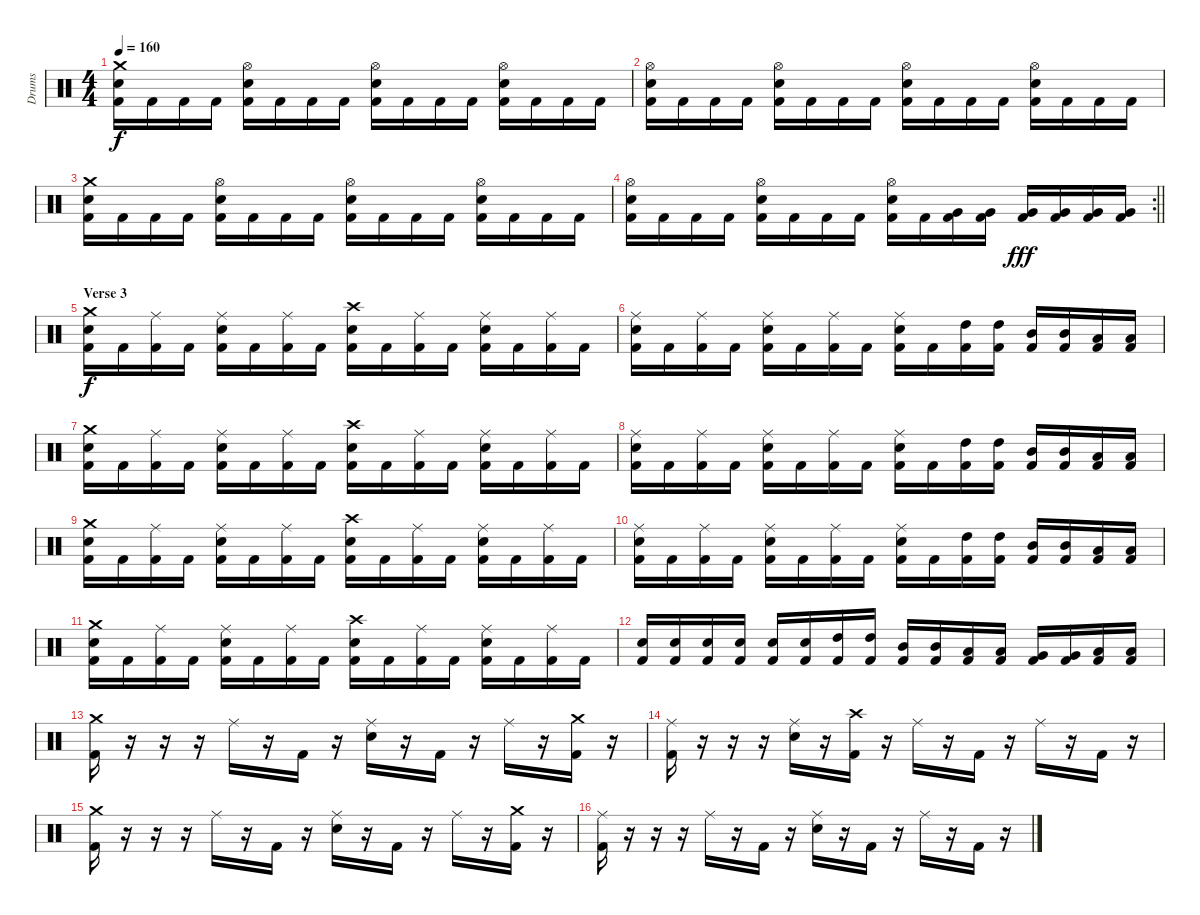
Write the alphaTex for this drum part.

\track ("Drums" "Drums") {instrument percussion}
\staff {score}
\articulation defaults
\ts (4 4)
\tempo 160
\clef neutral
\ks c
("Crash medium (hit)" "Electric Snare (hit)" "Kick (hit) 2").16{dy f} "Kick (hit) 2".16 "Kick (hit) 2".16 "Kick (hit) 2".16 ("Hi-Hat (open)" "Electric Snare (hit)" "Kick (hit) 2").16 "Kick (hit) 2".16 "Kick (hit) 2".16 "Kick (hit) 2".16 ("Hi-Hat (open)" "Electric Snare (hit)" "Kick (hit) 2").16 "Kick (hit) 2".16 "Kick (hit) 2".16 "Kick (hit) 2".16 ("Hi-Hat (open)" "Electric Snare (hit)" "Kick (hit) 2").16 "Kick (hit) 2".16 "Kick (hit) 2".16 "Kick (hit) 2".16 |
("Hi-Hat (open)" "Electric Snare (hit)" "Kick (hit) 2").16 "Kick (hit) 2".16 "Kick (hit) 2".16 "Kick (hit) 2".16 ("Hi-Hat (open)" "Electric Snare (hit)" "Kick (hit) 2").16 "Kick (hit) 2".16 "Kick (hit) 2".16 "Kick (hit) 2".16 ("Hi-Hat (open)" "Electric Snare (hit)" "Kick (hit) 2").16 "Kick (hit) 2".16 "Kick (hit) 2".16 "Kick (hit) 2".16 ("Hi-Hat (open)" "Electric Snare (hit)" "Kick (hit) 2").16 "Kick (hit) 2".16 "Kick (hit) 2".16 "Kick (hit) 2".16 |
("Crash medium (hit)" "Electric Snare (hit)" "Kick (hit) 2").16 "Kick (hit) 2".16 "Kick (hit) 2".16 "Kick (hit) 2".16 ("Hi-Hat (open)" "Electric Snare (hit)" "Kick (hit) 2").16 "Kick (hit) 2".16 "Kick (hit) 2".16 "Kick (hit) 2".16 ("Hi-Hat (open)" "Electric Snare (hit)" "Kick (hit) 2").16 "Kick (hit) 2".16 "Kick (hit) 2".16 "Kick (hit) 2".16 ("Hi-Hat (open)" "Electric Snare (hit)" "Kick (hit) 2").16 "Kick (hit) 2".16 "Kick (hit) 2".16 "Kick (hit) 2".16 |
\rc 2
\barLineRight lightlight
("Hi-Hat (open)" "Electric Snare (hit)" "Kick (hit) 2").16 "Kick (hit) 2".16 "Kick (hit) 2".16 "Kick (hit) 2".16 ("Hi-Hat (open)" "Electric Snare (hit)" "Kick (hit) 2").16 "Kick (hit) 2".16 "Kick (hit) 2".16 "Kick (hit) 2".16 ("Hi-Hat (open)" "Electric Snare (hit)" "Kick (hit) 2").16 "Kick (hit) 2".16 ("Very Low Tom (hit)" "Kick (hit) 2").16 ("Very Low Tom (hit)" "Kick (hit) 2").16 ("Very Low Tom (hit)" "Kick (hit) 2").16{dy fff} ("Very Low Tom (hit)" "Kick (hit) 2").16 ("Very Low Tom (hit)" "Kick (hit) 2").16 ("Very Low Tom (hit)" "Kick (hit) 2").16 |
\section ("" "Verse 3")
("Crash medium (hit)" "Electric Snare (hit)" "Kick (hit) 2").16{dy f} "Kick (hit) 2".16 ("Ride (middle)" "Kick (hit) 2").16 "Kick (hit) 2".16 ("Ride (middle)" "Electric Snare (hit)" "Kick (hit) 2").16 "Kick (hit) 2".16 ("Ride (middle)" "Kick (hit) 2").16 "Kick (hit) 2".16 ("Crash high (hit)" "Electric Snare (hit)" "Kick (hit) 2").16 "Kick (hit) 2".16 ("Ride (middle)" "Kick (hit) 2").16 "Kick (hit) 2".16 ("Ride (middle)" "Electric Snare (hit)" "Kick (hit) 2").16 "Kick (hit) 2".16 ("Ride (middle)" "Kick (hit) 2").16 "Kick (hit) 2".16 |
("Ride (middle)" "Electric Snare (hit)" "Kick (hit) 2").16 "Kick (hit) 2".16 ("Ride (middle)" "Kick (hit) 2").16 "Kick (hit) 2".16 ("Ride (middle)" "Electric Snare (hit)" "Kick (hit) 2").16 "Kick (hit) 2".16 ("Ride (middle)" "Kick (hit) 2").16 "Kick (hit) 2".16 ("Ride (middle)" "Electric Snare (hit)" "Kick (hit) 2").16 "Kick (hit) 2".16 ("High Tom (hit)" "Kick (hit) 2").16 ("High Tom (hit)" "Kick (hit) 2").16 ("Mid Tom (hit)" "Kick (hit) 2").16 ("Mid Tom (hit)" "Kick (hit) 2").16 ("Low Tom (hit)" "Kick (hit) 2").16 ("Low Tom (hit)" "Kick (hit) 2").16 |
("Crash medium (hit)" "Electric Snare (hit)" "Kick (hit) 2").16 "Kick (hit) 2".16 ("Ride (middle)" "Kick (hit) 2").16 "Kick (hit) 2".16 ("Ride (middle)" "Electric Snare (hit)" "Kick (hit) 2").16 "Kick (hit) 2".16 ("Ride (middle)" "Kick (hit) 2").16 "Kick (hit) 2".16 ("Crash high (hit)" "Electric Snare (hit)" "Kick (hit) 2").16 "Kick (hit) 2".16 ("Ride (middle)" "Kick (hit) 2").16 "Kick (hit) 2".16 ("Ride (middle)" "Electric Snare (hit)" "Kick (hit) 2").16 "Kick (hit) 2".16 ("Ride (middle)" "Kick (hit) 2").16 "Kick (hit) 2".16 |
("Ride (middle)" "Electric Snare (hit)" "Kick (hit) 2").16 "Kick (hit) 2".16 ("Ride (middle)" "Kick (hit) 2").16 "Kick (hit) 2".16 ("Ride (middle)" "Electric Snare (hit)" "Kick (hit) 2").16 "Kick (hit) 2".16 ("Ride (middle)" "Kick (hit) 2").16 "Kick (hit) 2".16 ("Ride (middle)" "Electric Snare (hit)" "Kick (hit) 2").16 "Kick (hit) 2".16 ("High Tom (hit)" "Kick (hit) 2").16 ("High Tom (hit)" "Kick (hit) 2").16 ("Mid Tom (hit)" "Kick (hit) 2").16 ("Mid Tom (hit)" "Kick (hit) 2").16 ("Low Tom (hit)" "Kick (hit) 2").16 ("Low Tom (hit)" "Kick (hit) 2").16 |
("Crash medium (hit)" "Electric Snare (hit)" "Kick (hit) 2").16 "Kick (hit) 2".16 ("Ride (middle)" "Kick (hit) 2").16 "Kick (hit) 2".16 ("Ride (middle)" "Electric Snare (hit)" "Kick (hit) 2").16 "Kick (hit) 2".16 ("Ride (middle)" "Kick (hit) 2").16 "Kick (hit) 2".16 ("Crash high (hit)" "Electric Snare (hit)" "Kick (hit) 2").16 "Kick (hit) 2".16 ("Ride (middle)" "Kick (hit) 2").16 "Kick (hit) 2".16 ("Ride (middle)" "Electric Snare (hit)" "Kick (hit) 2").16 "Kick (hit) 2".16 ("Ride (middle)" "Kick (hit) 2").16 "Kick (hit) 2".16 |
("Ride (middle)" "Electric Snare (hit)" "Kick (hit) 2").16 "Kick (hit) 2".16 ("Ride (middle)" "Kick (hit) 2").16 "Kick (hit) 2".16 ("Ride (middle)" "Electric Snare (hit)" "Kick (hit) 2").16 "Kick (hit) 2".16 ("Ride (middle)" "Kick (hit) 2").16 "Kick (hit) 2".16 ("Ride (middle)" "Electric Snare (hit)" "Kick (hit) 2").16 "Kick (hit) 2".16 ("High Tom (hit)" "Kick (hit) 2").16 ("High Tom (hit)" "Kick (hit) 2").16 ("Mid Tom (hit)" "Kick (hit) 2").16 ("Mid Tom (hit)" "Kick (hit) 2").16 ("Low Tom (hit)" "Kick (hit) 2").16 ("Low Tom (hit)" "Kick (hit) 2").16 |
("Crash medium (hit)" "Electric Snare (hit)" "Kick (hit) 2").16 "Kick (hit) 2".16 ("Ride (middle)" "Kick (hit) 2").16 "Kick (hit) 2".16 ("Ride (middle)" "Electric Snare (hit)" "Kick (hit) 2").16 "Kick (hit) 2".16 ("Ride (middle)" "Kick (hit) 2").16 "Kick (hit) 2".16 ("Crash high (hit)" "Electric Snare (hit)" "Kick (hit) 2").16 "Kick (hit) 2".16 ("Ride (middle)" "Kick (hit) 2").16 "Kick (hit) 2".16 ("Ride (middle)" "Electric Snare (hit)" "Kick (hit) 2").16 "Kick (hit) 2".16 ("Ride (middle)" "Kick (hit) 2").16 "Kick (hit) 2".16 |
("Electric Snare (hit)" "Kick (hit) 2").16 ("Electric Snare (hit)" "Kick (hit) 2").16 ("Electric Snare (hit)" "Kick (hit) 2").16 ("Electric Snare (hit)" "Kick (hit) 2").16 ("Electric Snare (hit)" "Kick (hit) 2").16 ("Electric Snare (hit)" "Kick (hit) 2").16 ("High Tom (hit)" "Kick (hit) 2").16 ("High Tom (hit)" "Kick (hit) 2").16 ("Mid Tom (hit)" "Kick (hit) 2").16 ("Mid Tom (hit)" "Kick (hit) 2").16 ("Low Tom (hit)" "Kick (hit) 2").16 ("Low Tom (hit)" "Kick (hit) 2").16 ("Very Low Tom (hit)" "Kick (hit) 2").16 ("Very Low Tom (hit)" "Kick (hit) 2").16 ("Low Floor Tom (hit)" "Kick (hit) 2").16 ("Low Floor Tom (hit)" "Kick (hit) 2").16 |
("Crash medium (hit)" "Kick (hit) 2").16 r.16 r.16 r.16 "Ride (middle)".16 r.16 "Kick (hit) 2".16 r.16 ("Ride (middle)" "Electric Snare (hit)").16 r.16 "Kick (hit) 2".16 r.16 "Ride (middle)".16 r.16 ("Crash medium (hit)" "Kick (hit) 2").16 r.16 |
("Ride (middle)" "Kick (hit) 2").16 r.16 r.16 r.16 ("Ride (middle)" "Electric Snare (hit)").16 r.16 ("Crash high (hit)" "Kick (hit) 2").16 r.16 "Ride (middle)".16 r.16 "Kick (hit) 2".16 r.16 "Ride (middle)".16 r.16 "Kick (hit) 2".16 r.16 |
("Crash medium (hit)" "Kick (hit) 2").16 r.16 r.16 r.16 "Ride (middle)".16 r.16 "Kick (hit) 2".16 r.16 ("Ride (middle)" "Electric Snare (hit)").16 r.16 "Kick (hit) 2".16 r.16 "Ride (middle)".16 r.16 ("Crash medium (hit)" "Kick (hit) 2").16 r.16 |
("Ride (middle)" "Kick (hit) 2").16 r.16 r.16 r.16 "Ride (middle)".16 r.16 "Kick (hit) 2".16 r.16 ("Ride (middle)" "Electric Snare (hit)").16 r.16 "Kick (hit) 2".16 r.16 "Ride (middle)".16 r.16 "Kick (hit) 2".16 r.16
